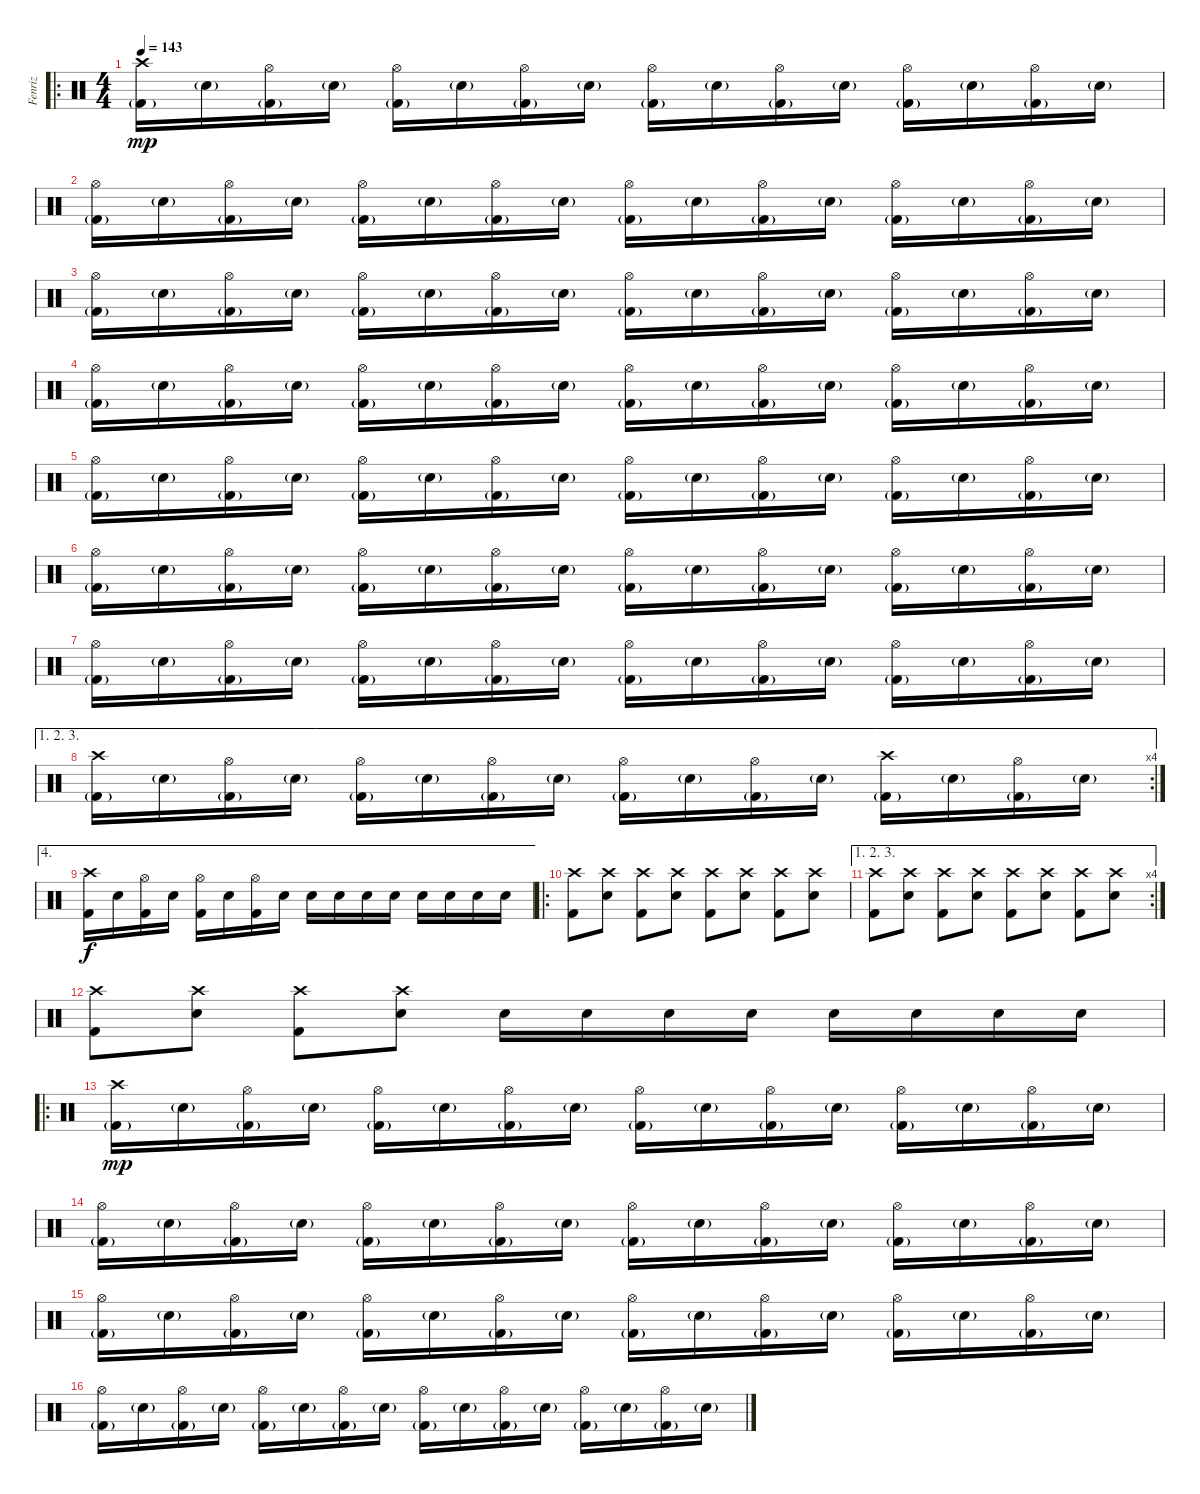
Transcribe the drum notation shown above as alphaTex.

\track ("Fenriz" "Fenriz") {instrument percussion}
\staff {score}
\articulation defaults
\ro
\ts (4 4)
\tempo 143
\clef neutral
\ks c
("Crash high (hit)" "Kick (hit) 2"{g}).16{dy mp} "Electric Snare (hit)"{g}.16 ("Hi-Hat (open)" "Kick (hit) 2"{g}).16 "Electric Snare (hit)"{g}.16 ("Hi-Hat (open)" "Kick (hit) 2"{g}).16 "Electric Snare (hit)"{g}.16 ("Hi-Hat (open)" "Kick (hit) 2"{g}).16 "Electric Snare (hit)"{g}.16 ("Hi-Hat (open)" "Kick (hit) 2"{g}).16 "Electric Snare (hit)"{g}.16 ("Hi-Hat (open)" "Kick (hit) 2"{g}).16 "Electric Snare (hit)"{g}.16 ("Hi-Hat (open)" "Kick (hit) 2"{g}).16 "Electric Snare (hit)"{g}.16 ("Hi-Hat (open)" "Kick (hit) 2"{g}).16 "Electric Snare (hit)"{g}.16 |
("Hi-Hat (open)" "Kick (hit) 2"{g}).16 "Electric Snare (hit)"{g}.16 ("Hi-Hat (open)" "Kick (hit) 2"{g}).16 "Electric Snare (hit)"{g}.16 ("Hi-Hat (open)" "Kick (hit) 2"{g}).16 "Electric Snare (hit)"{g}.16 ("Hi-Hat (open)" "Kick (hit) 2"{g}).16 "Electric Snare (hit)"{g}.16 ("Hi-Hat (open)" "Kick (hit) 2"{g}).16 "Electric Snare (hit)"{g}.16 ("Hi-Hat (open)" "Kick (hit) 2"{g}).16 "Electric Snare (hit)"{g}.16 ("Hi-Hat (open)" "Kick (hit) 2"{g}).16 "Electric Snare (hit)"{g}.16 ("Hi-Hat (open)" "Kick (hit) 2"{g}).16 "Electric Snare (hit)"{g}.16 |
("Hi-Hat (open)" "Kick (hit) 2"{g}).16 "Electric Snare (hit)"{g}.16 ("Hi-Hat (open)" "Kick (hit) 2"{g}).16 "Electric Snare (hit)"{g}.16 ("Hi-Hat (open)" "Kick (hit) 2"{g}).16 "Electric Snare (hit)"{g}.16 ("Hi-Hat (open)" "Kick (hit) 2"{g}).16 "Electric Snare (hit)"{g}.16 ("Hi-Hat (open)" "Kick (hit) 2"{g}).16 "Electric Snare (hit)"{g}.16 ("Hi-Hat (open)" "Kick (hit) 2"{g}).16 "Electric Snare (hit)"{g}.16 ("Hi-Hat (open)" "Kick (hit) 2"{g}).16 "Electric Snare (hit)"{g}.16 ("Hi-Hat (open)" "Kick (hit) 2"{g}).16 "Electric Snare (hit)"{g}.16 |
("Hi-Hat (open)" "Kick (hit) 2"{g}).16 "Electric Snare (hit)"{g}.16 ("Hi-Hat (open)" "Kick (hit) 2"{g}).16 "Electric Snare (hit)"{g}.16 ("Hi-Hat (open)" "Kick (hit) 2"{g}).16 "Electric Snare (hit)"{g}.16 ("Hi-Hat (open)" "Kick (hit) 2"{g}).16 "Electric Snare (hit)"{g}.16 ("Hi-Hat (open)" "Kick (hit) 2"{g}).16 "Electric Snare (hit)"{g}.16 ("Hi-Hat (open)" "Kick (hit) 2"{g}).16 "Electric Snare (hit)"{g}.16 ("Hi-Hat (open)" "Kick (hit) 2"{g}).16 "Electric Snare (hit)"{g}.16 ("Hi-Hat (open)" "Kick (hit) 2"{g}).16 "Electric Snare (hit)"{g}.16 |
("Hi-Hat (open)" "Kick (hit) 2"{g}).16 "Electric Snare (hit)"{g}.16 ("Hi-Hat (open)" "Kick (hit) 2"{g}).16 "Electric Snare (hit)"{g}.16 ("Hi-Hat (open)" "Kick (hit) 2"{g}).16 "Electric Snare (hit)"{g}.16 ("Hi-Hat (open)" "Kick (hit) 2"{g}).16 "Electric Snare (hit)"{g}.16 ("Hi-Hat (open)" "Kick (hit) 2"{g}).16 "Electric Snare (hit)"{g}.16 ("Hi-Hat (open)" "Kick (hit) 2"{g}).16 "Electric Snare (hit)"{g}.16 ("Hi-Hat (open)" "Kick (hit) 2"{g}).16 "Electric Snare (hit)"{g}.16 ("Hi-Hat (open)" "Kick (hit) 2"{g}).16 "Electric Snare (hit)"{g}.16 |
("Hi-Hat (open)" "Kick (hit) 2"{g}).16 "Electric Snare (hit)"{g}.16 ("Hi-Hat (open)" "Kick (hit) 2"{g}).16 "Electric Snare (hit)"{g}.16 ("Hi-Hat (open)" "Kick (hit) 2"{g}).16 "Electric Snare (hit)"{g}.16 ("Hi-Hat (open)" "Kick (hit) 2"{g}).16 "Electric Snare (hit)"{g}.16 ("Hi-Hat (open)" "Kick (hit) 2"{g}).16 "Electric Snare (hit)"{g}.16 ("Hi-Hat (open)" "Kick (hit) 2"{g}).16 "Electric Snare (hit)"{g}.16 ("Hi-Hat (open)" "Kick (hit) 2"{g}).16 "Electric Snare (hit)"{g}.16 ("Hi-Hat (open)" "Kick (hit) 2"{g}).16 "Electric Snare (hit)"{g}.16 |
("Hi-Hat (open)" "Kick (hit) 2"{g}).16 "Electric Snare (hit)"{g}.16 ("Hi-Hat (open)" "Kick (hit) 2"{g}).16 "Electric Snare (hit)"{g}.16 ("Hi-Hat (open)" "Kick (hit) 2"{g}).16 "Electric Snare (hit)"{g}.16 ("Hi-Hat (open)" "Kick (hit) 2"{g}).16 "Electric Snare (hit)"{g}.16 ("Hi-Hat (open)" "Kick (hit) 2"{g}).16 "Electric Snare (hit)"{g}.16 ("Hi-Hat (open)" "Kick (hit) 2"{g}).16 "Electric Snare (hit)"{g}.16 ("Hi-Hat (open)" "Kick (hit) 2"{g}).16 "Electric Snare (hit)"{g}.16 ("Hi-Hat (open)" "Kick (hit) 2"{g}).16 "Electric Snare (hit)"{g}.16 |
\ae (1 2 3)
\rc 4
("Crash high (hit)" "Kick (hit) 2"{g}).16 "Electric Snare (hit)"{g}.16 ("Hi-Hat (open)" "Kick (hit) 2"{g}).16 "Electric Snare (hit)"{g}.16 ("Hi-Hat (open)" "Kick (hit) 2"{g}).16 "Electric Snare (hit)"{g}.16 ("Hi-Hat (open)" "Kick (hit) 2"{g}).16 "Electric Snare (hit)"{g}.16 ("Hi-Hat (open)" "Kick (hit) 2"{g}).16 "Electric Snare (hit)"{g}.16 ("Hi-Hat (open)" "Kick (hit) 2"{g}).16 "Electric Snare (hit)"{g}.16 ("Crash high (hit)" "Kick (hit) 2"{g}).16 "Electric Snare (hit)"{g}.16 ("Hi-Hat (open)" "Kick (hit) 2"{g}).16 "Electric Snare (hit)"{g}.16 |
\ae 4
("Crash high (hit)" "Kick (hit) 2").16{dy f} "Electric Snare (hit)".16 ("Hi-Hat (open)" "Kick (hit) 2").16 "Electric Snare (hit)".16 ("Hi-Hat (open)" "Kick (hit) 2").16 "Electric Snare (hit)".16 ("Hi-Hat (open)" "Kick (hit) 2").16 "Electric Snare (hit)".16 "Electric Snare (hit)".16 "Electric Snare (hit)".16 "Electric Snare (hit)".16 "Electric Snare (hit)".16 "Electric Snare (hit)".16 "Electric Snare (hit)".16 "Electric Snare (hit)".16 "Electric Snare (hit)".16 |
\ro
("Crash high (hit)" "Kick (hit) 2").8 ("Crash high (hit)" "Electric Snare (hit)").8 ("Crash high (hit)" "Kick (hit) 2").8 ("Crash high (hit)" "Electric Snare (hit)").8 ("Crash high (hit)" "Kick (hit) 2").8 ("Crash high (hit)" "Electric Snare (hit)").8 ("Crash high (hit)" "Kick (hit) 2").8 ("Crash high (hit)" "Electric Snare (hit)").8 |
\ae (1 2 3)
\rc 4
("Crash high (hit)" "Kick (hit) 2").8 ("Crash high (hit)" "Electric Snare (hit)").8 ("Crash high (hit)" "Kick (hit) 2").8 ("Crash high (hit)" "Electric Snare (hit)").8 ("Crash high (hit)" "Kick (hit) 2").8 ("Crash high (hit)" "Electric Snare (hit)").8 ("Crash high (hit)" "Kick (hit) 2").8 ("Crash high (hit)" "Electric Snare (hit)").8 |
("Crash high (hit)" "Kick (hit) 2").8 ("Crash high (hit)" "Electric Snare (hit)").8 ("Crash high (hit)" "Kick (hit) 2").8 ("Crash high (hit)" "Electric Snare (hit)").8 "Electric Snare (hit)".16 "Electric Snare (hit)".16 "Electric Snare (hit)".16 "Electric Snare (hit)".16 "Electric Snare (hit)".16 "Electric Snare (hit)".16 "Electric Snare (hit)".16 "Electric Snare (hit)".16 |
\ro
("Crash high (hit)" "Kick (hit) 2"{g}).16{dy mp} "Electric Snare (hit)"{g}.16 ("Hi-Hat (open)" "Kick (hit) 2"{g}).16 "Electric Snare (hit)"{g}.16 ("Hi-Hat (open)" "Kick (hit) 2"{g}).16 "Electric Snare (hit)"{g}.16 ("Hi-Hat (open)" "Kick (hit) 2"{g}).16 "Electric Snare (hit)"{g}.16 ("Hi-Hat (open)" "Kick (hit) 2"{g}).16 "Electric Snare (hit)"{g}.16 ("Hi-Hat (open)" "Kick (hit) 2"{g}).16 "Electric Snare (hit)"{g}.16 ("Hi-Hat (open)" "Kick (hit) 2"{g}).16 "Electric Snare (hit)"{g}.16 ("Hi-Hat (open)" "Kick (hit) 2"{g}).16 "Electric Snare (hit)"{g}.16 |
("Hi-Hat (open)" "Kick (hit) 2"{g}).16 "Electric Snare (hit)"{g}.16 ("Hi-Hat (open)" "Kick (hit) 2"{g}).16 "Electric Snare (hit)"{g}.16 ("Hi-Hat (open)" "Kick (hit) 2"{g}).16 "Electric Snare (hit)"{g}.16 ("Hi-Hat (open)" "Kick (hit) 2"{g}).16 "Electric Snare (hit)"{g}.16 ("Hi-Hat (open)" "Kick (hit) 2"{g}).16 "Electric Snare (hit)"{g}.16 ("Hi-Hat (open)" "Kick (hit) 2"{g}).16 "Electric Snare (hit)"{g}.16 ("Hi-Hat (open)" "Kick (hit) 2"{g}).16 "Electric Snare (hit)"{g}.16 ("Hi-Hat (open)" "Kick (hit) 2"{g}).16 "Electric Snare (hit)"{g}.16 |
("Hi-Hat (open)" "Kick (hit) 2"{g}).16 "Electric Snare (hit)"{g}.16 ("Hi-Hat (open)" "Kick (hit) 2"{g}).16 "Electric Snare (hit)"{g}.16 ("Hi-Hat (open)" "Kick (hit) 2"{g}).16 "Electric Snare (hit)"{g}.16 ("Hi-Hat (open)" "Kick (hit) 2"{g}).16 "Electric Snare (hit)"{g}.16 ("Hi-Hat (open)" "Kick (hit) 2"{g}).16 "Electric Snare (hit)"{g}.16 ("Hi-Hat (open)" "Kick (hit) 2"{g}).16 "Electric Snare (hit)"{g}.16 ("Hi-Hat (open)" "Kick (hit) 2"{g}).16 "Electric Snare (hit)"{g}.16 ("Hi-Hat (open)" "Kick (hit) 2"{g}).16 "Electric Snare (hit)"{g}.16 |
("Hi-Hat (open)" "Kick (hit) 2"{g}).16 "Electric Snare (hit)"{g}.16 ("Hi-Hat (open)" "Kick (hit) 2"{g}).16 "Electric Snare (hit)"{g}.16 ("Hi-Hat (open)" "Kick (hit) 2"{g}).16 "Electric Snare (hit)"{g}.16 ("Hi-Hat (open)" "Kick (hit) 2"{g}).16 "Electric Snare (hit)"{g}.16 ("Hi-Hat (open)" "Kick (hit) 2"{g}).16 "Electric Snare (hit)"{g}.16 ("Hi-Hat (open)" "Kick (hit) 2"{g}).16 "Electric Snare (hit)"{g}.16 ("Hi-Hat (open)" "Kick (hit) 2"{g}).16 "Electric Snare (hit)"{g}.16 ("Hi-Hat (open)" "Kick (hit) 2"{g}).16 "Electric Snare (hit)"{g}.16
